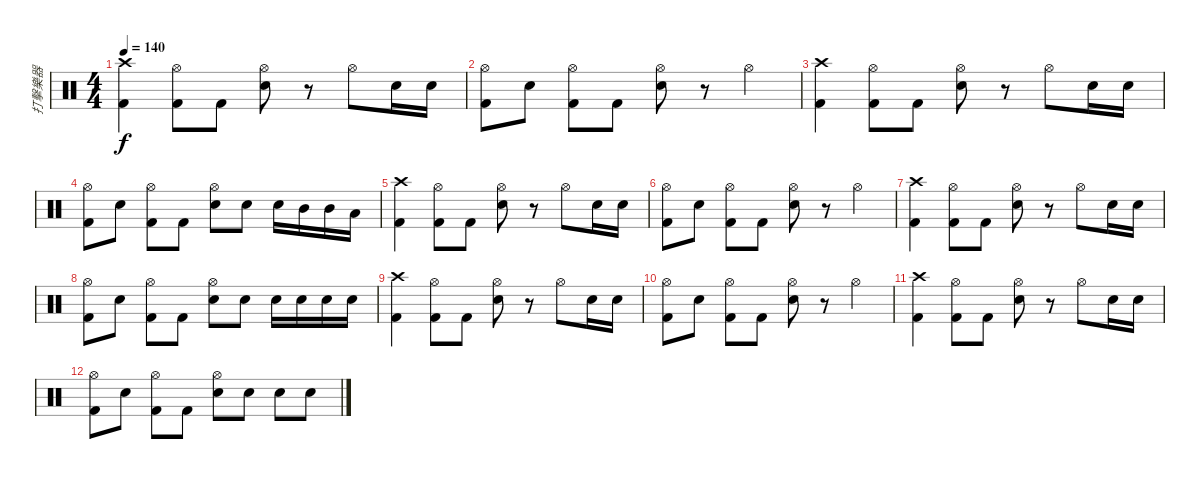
\track ("打擊樂器" "打擊樂器") {instrument percussion}
\staff {score}
\articulation defaults
\ts (4 4)
\tempo 140
\clef neutral
\ks c
("Crash high (hit)" "Kick (hit) 2").4{dy f} ("Hi-Hat (open)" "Kick (hit) 2").8 "Kick (hit) 2".8 ("Hi-Hat (open)" "Electric Snare (hit)").8 r.8 "Hi-Hat (open)".8 "Electric Snare (hit)".16 "Electric Snare (hit)".16 |
("Hi-Hat (open)" "Kick (hit) 2").8 "Electric Snare (hit)".8 ("Hi-Hat (open)" "Kick (hit) 2").8 "Kick (hit) 2".8 ("Hi-Hat (open)" "Electric Snare (hit)").8 r.8 "Hi-Hat (open)".4 |
("Crash high (hit)" "Kick (hit) 2").4 ("Hi-Hat (open)" "Kick (hit) 2").8 "Kick (hit) 2".8 ("Hi-Hat (open)" "Electric Snare (hit)").8 r.8 "Hi-Hat (open)".8 "Electric Snare (hit)".16 "Electric Snare (hit)".16 |
("Hi-Hat (open)" "Kick (hit) 2").8 "Electric Snare (hit)".8 ("Hi-Hat (open)" "Kick (hit) 2").8 "Kick (hit) 2".8 ("Hi-Hat (open)" "Electric Snare (hit)").8 "Electric Snare (hit)".8 "Electric Snare (hit)".16 "Mid Tom (hit)".16 "Mid Tom (hit)".16 "Low Tom (hit)".16 |
("Crash high (hit)" "Kick (hit) 2").4 ("Hi-Hat (open)" "Kick (hit) 2").8 "Kick (hit) 2".8 ("Hi-Hat (open)" "Electric Snare (hit)").8 r.8 "Hi-Hat (open)".8 "Electric Snare (hit)".16 "Electric Snare (hit)".16 |
("Hi-Hat (open)" "Kick (hit) 2").8 "Electric Snare (hit)".8 ("Hi-Hat (open)" "Kick (hit) 2").8 "Kick (hit) 2".8 ("Hi-Hat (open)" "Electric Snare (hit)").8 r.8 "Hi-Hat (open)".4 |
("Crash high (hit)" "Kick (hit) 2").4 ("Hi-Hat (open)" "Kick (hit) 2").8 "Kick (hit) 2".8 ("Hi-Hat (open)" "Electric Snare (hit)").8 r.8 "Hi-Hat (open)".8 "Electric Snare (hit)".16 "Electric Snare (hit)".16 |
("Hi-Hat (open)" "Kick (hit) 2").8 "Electric Snare (hit)".8 ("Hi-Hat (open)" "Kick (hit) 2").8 "Kick (hit) 2".8 ("Hi-Hat (open)" "Electric Snare (hit)").8 "Electric Snare (hit)".8 "Electric Snare (hit)".16 "Electric Snare (hit)".16 "Electric Snare (hit)".16 "Electric Snare (hit)".16 |
("Crash high (hit)" "Kick (hit) 2").4 ("Hi-Hat (open)" "Kick (hit) 2").8 "Kick (hit) 2".8 ("Hi-Hat (open)" "Electric Snare (hit)").8 r.8 "Hi-Hat (open)".8 "Electric Snare (hit)".16 "Electric Snare (hit)".16 |
("Hi-Hat (open)" "Kick (hit) 2").8 "Electric Snare (hit)".8 ("Hi-Hat (open)" "Kick (hit) 2").8 "Kick (hit) 2".8 ("Hi-Hat (open)" "Electric Snare (hit)").8 r.8 "Hi-Hat (open)".4 |
("Crash high (hit)" "Kick (hit) 2").4 ("Hi-Hat (open)" "Kick (hit) 2").8 "Kick (hit) 2".8 ("Hi-Hat (open)" "Electric Snare (hit)").8 r.8 "Hi-Hat (open)".8 "Electric Snare (hit)".16 "Electric Snare (hit)".16 |
("Hi-Hat (open)" "Kick (hit) 2").8 "Electric Snare (hit)".8 ("Hi-Hat (open)" "Kick (hit) 2").8 "Kick (hit) 2".8 ("Hi-Hat (open)" "Electric Snare (hit)").8 "Electric Snare (hit)".8 "Electric Snare (hit)".8 "Electric Snare (hit)".8
